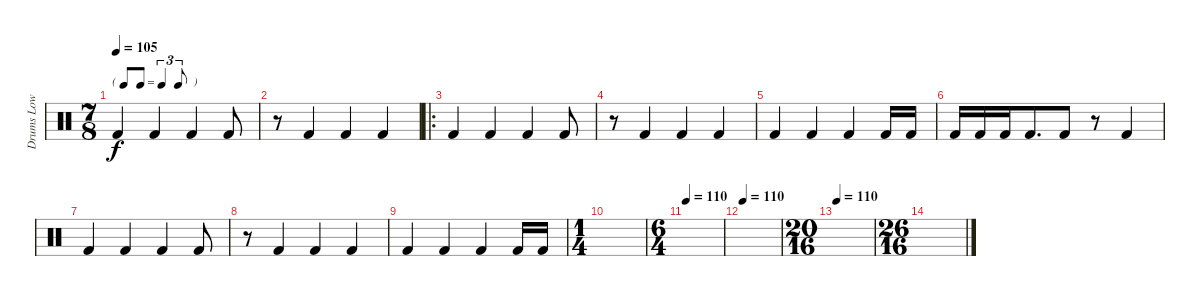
\track ("Drums Low" "Drums Low") {instrument percussion}
\staff {score}
\articulation defaults
\ts (7 8)
\tf triplet8th
\tempo 105
\clef neutral
\ks c "Kick (hit) 2".4{dy f} "Kick (hit) 2".4 "Kick (hit) 2".4 "Kick (hit) 2".8
|
r.8 "Kick (hit) 2".4 "Kick (hit) 2".4 "Kick (hit) 2".4 |
\ro "Kick (hit) 2".4 "Kick (hit) 2".4 "Kick (hit) 2".4 "Kick (hit) 2".8
|
r.8 "Kick (hit) 2".4 "Kick (hit) 2".4 "Kick (hit) 2".4 |
"Kick (hit) 2".4 "Kick (hit) 2".4 "Kick (hit) 2".4 "Kick (hit) 2".16 "Kick (hit) 2".16 |
"Kick (hit) 2".16 "Kick (hit) 2".16 "Kick (hit) 2".16 "Kick (hit) 2".8{d} "Kick (hit) 2".8 r.8 "Kick (hit) 2".4 |
"Kick (hit) 2".4 "Kick (hit) 2".4 "Kick (hit) 2".4 "Kick (hit) 2".8 |
r.8 "Kick (hit) 2".4 "Kick (hit) 2".4 "Kick (hit) 2".4 |
"Kick (hit) 2".4 "Kick (hit) 2".4 "Kick (hit) 2".4 "Kick (hit) 2".16 "Kick (hit) 2".16 |
\ts (1 4)
|
\ts (6 4)
\tempo 110
|
\tempo 110
|
\ts (20 16)
\tempo 110
|
\ts (26 16)
